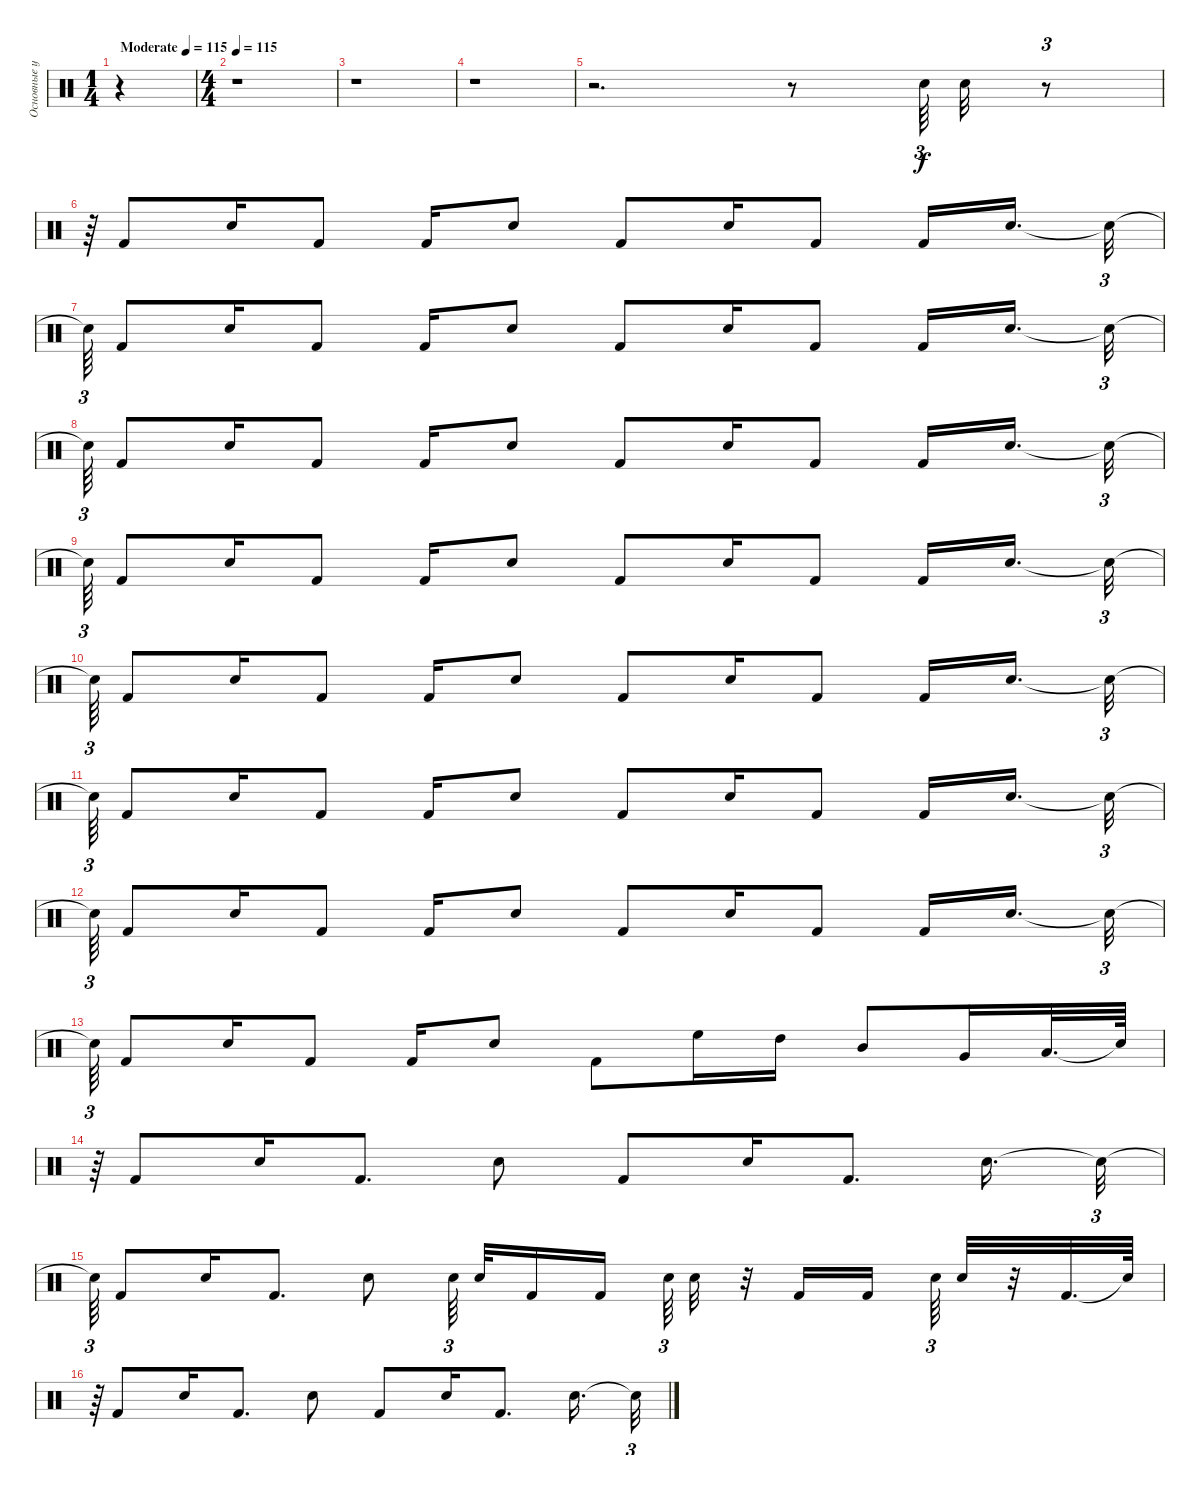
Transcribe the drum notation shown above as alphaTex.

\track ("Основные ударные" "Основные у") {instrument percussion}
\staff {score}
\articulation defaults
\ts (1 4)
\tempo (115 "Moderate")
\clef neutral
\ks c
r.4{dy f} |
\ts (4 4)
\tempo 115
r.1 |
r.1 |
r.1 |
r.2{d} r.8 "Electric Snare (hit)".64{tu (3 2)} "Electric Snare (hit)".32 r.8{tu (3 2)} |
r.64{tu (3 2)} "Kick (hit) 2".8 "Electric Snare (hit)".16 "Kick (hit) 2".8 "Kick (hit) 2".16 "Electric Snare (hit)".8 "Kick (hit) 2".8 "Electric Snare (hit)".16 "Kick (hit) 2".8 "Kick (hit) 2".16 "Electric Snare (hit)".16{d beam splitsecondary} "Snare (hit)"{t}.32{tu (3 2)} |
"Snare (hit)"{t}.64{tu (3 2)} "Kick (hit) 2".8 "Electric Snare (hit)".16 "Kick (hit) 2".8 "Kick (hit) 2".16 "Electric Snare (hit)".8 "Kick (hit) 2".8 "Electric Snare (hit)".16 "Kick (hit) 2".8 "Kick (hit) 2".16 "Electric Snare (hit)".16{d beam splitsecondary} "Snare (hit)"{t}.32{tu (3 2)} |
"Snare (hit)"{t}.64{tu (3 2)} "Kick (hit) 2".8 "Electric Snare (hit)".16 "Kick (hit) 2".8 "Kick (hit) 2".16 "Electric Snare (hit)".8 "Kick (hit) 2".8 "Electric Snare (hit)".16 "Kick (hit) 2".8 "Kick (hit) 2".16 "Electric Snare (hit)".16{d beam splitsecondary} "Snare (hit)"{t}.32{tu (3 2)} |
"Snare (hit)"{t}.64{tu (3 2)} "Kick (hit) 2".8 "Electric Snare (hit)".16 "Kick (hit) 2".8 "Kick (hit) 2".16 "Electric Snare (hit)".8 "Kick (hit) 2".8 "Electric Snare (hit)".16 "Kick (hit) 2".8 "Kick (hit) 2".16 "Electric Snare (hit)".16{d beam splitsecondary} "Snare (hit)"{t}.32{tu (3 2)} |
"Snare (hit)"{t}.64{tu (3 2)} "Kick (hit) 2".8 "Electric Snare (hit)".16 "Kick (hit) 2".8 "Kick (hit) 2".16 "Electric Snare (hit)".8 "Kick (hit) 2".8 "Electric Snare (hit)".16 "Kick (hit) 2".8 "Kick (hit) 2".16 "Electric Snare (hit)".16{d beam splitsecondary} "Snare (hit)"{t}.32{tu (3 2)} |
"Snare (hit)"{t}.64{tu (3 2)} "Kick (hit) 2".8 "Electric Snare (hit)".16 "Kick (hit) 2".8 "Kick (hit) 2".16 "Electric Snare (hit)".8 "Kick (hit) 2".8 "Electric Snare (hit)".16 "Kick (hit) 2".8 "Kick (hit) 2".16 "Electric Snare (hit)".16{d beam splitsecondary} "Snare (hit)"{t}.32{tu (3 2)} |
"Snare (hit)"{t}.64{tu (3 2)} "Kick (hit) 2".8 "Electric Snare (hit)".16 "Kick (hit) 2".8 "Kick (hit) 2".16 "Electric Snare (hit)".8 "Kick (hit) 2".8 "Electric Snare (hit)".16 "Kick (hit) 2".8 "Kick (hit) 2".16 "Electric Snare (hit)".16{d beam splitsecondary} "Snare (hit)"{t}.32{tu (3 2)} |
"Snare (hit)"{t}.64{tu (3 2)} "Kick (hit) 2".8 "Electric Snare (hit)".16 "Kick (hit) 2".8 "Kick (hit) 2".16 "Electric Snare (hit)".8 "Kick (hit) 2".8 "High Floor Tom (hit)".16 "High Tom (hit)".16 "Mid Tom (hit)".8 "Very Low Tom (hit)".16 "Low Floor Tom (hit)".32{d} "Snare (hit)"{t}.64 |
r.64{tu (3 2)} "Kick (hit) 2".8 "Electric Snare (hit)".16 "Kick (hit) 2".8{d} "Electric Snare (hit)".8 "Kick (hit) 2".8 "Electric Snare (hit)".16 "Kick (hit) 2".8{d} "Electric Snare (hit)".16{d} "Snare (hit)"{t}.32{tu (3 2)} |
"Snare (hit)"{t}.64{tu (3 2)} "Kick (hit) 2".8 "Electric Snare (hit)".16 "Kick (hit) 2".8{d} "Electric Snare (hit)".8 "Electric Snare (hit)".64{tu (3 2) beam splitsecondary} "Electric Snare (hit)".32 "Kick (hit) 2".16 "Kick (hit) 2".16{beam splitsecondary} "Electric Snare (hit)".64{tu (3 2)} "Electric Snare (hit)".32 r.32 "Kick (hit) 2".16 "Kick (hit) 2".16{beam splitsecondary} "Electric Snare (hit)".64{tu (3 2)} "Electric Snare (hit)".32 r.32 "Kick (hit) 2".32{d} "Snare (hit)"{t}.64 |
r.64{tu (3 2)} "Kick (hit) 2".8 "Electric Snare (hit)".16 "Kick (hit) 2".8{d} "Electric Snare (hit)".8 "Kick (hit) 2".8 "Electric Snare (hit)".16 "Kick (hit) 2".8{d} "Electric Snare (hit)".16{d} "Snare (hit)"{t}.32{tu (3 2)}
